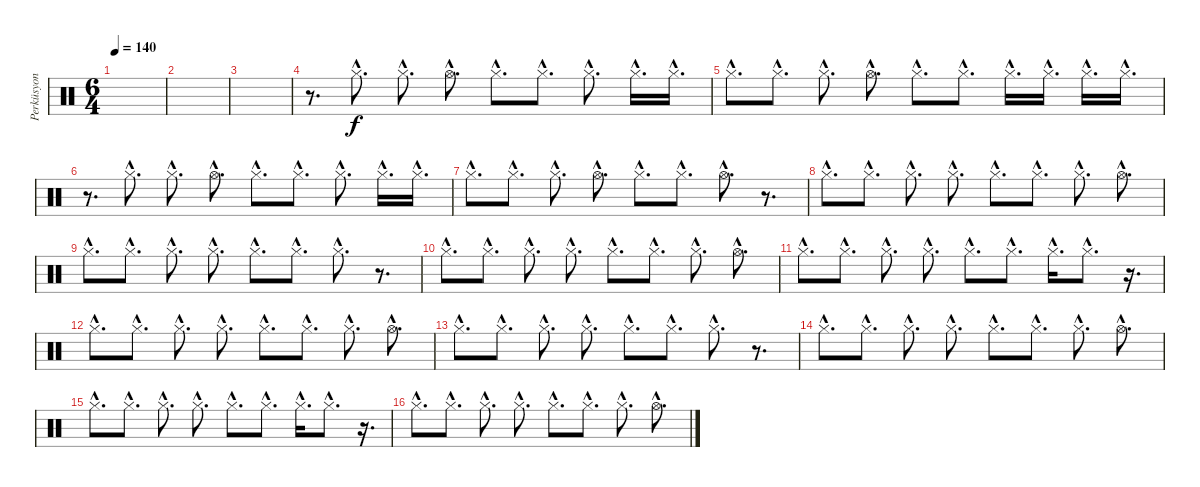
\track ("Perküsyon" "Perküsyon") {instrument percussion}
\staff {score}
\articulation defaults
\ts (6 4)
\tempo 140
\clef neutral
\ks c
|
|
|
r.8{d} "Hi-Hat (closed)"{hac}.8{d dy f} "Hi-Hat (closed)"{hac}.8{d} "Hi-Hat (open)"{hac}.8{d} "Hi-Hat (closed)"{hac}.8{d} "Hi-Hat (closed)"{hac}.8{d} "Hi-Hat (closed)"{hac}.8{d} "Hi-Hat (closed)"{hac}.16{d} "Hi-Hat (closed)"{hac}.16{d} |
"Hi-Hat (closed)"{hac}.8{d} "Hi-Hat (closed)"{hac}.8{d} "Hi-Hat (closed)"{hac}.8{d} "Hi-Hat (open)"{hac}.8{d} "Hi-Hat (closed)"{hac}.8{d} "Hi-Hat (closed)"{hac}.8{d} "Hi-Hat (closed)"{hac}.16{d} "Hi-Hat (closed)"{hac}.16{d} "Hi-Hat (closed)"{hac}.16{d} "Hi-Hat (closed)"{hac}.16{d} |
r.8{d} "Hi-Hat (closed)"{hac}.8{d} "Hi-Hat (closed)"{hac}.8{d} "Hi-Hat (open)"{hac}.8{d} "Hi-Hat (closed)"{hac}.8{d} "Hi-Hat (closed)"{hac}.8{d} "Hi-Hat (closed)"{hac}.8{d} "Hi-Hat (closed)"{hac}.16{d} "Hi-Hat (closed)"{hac}.16{d} |
"Hi-Hat (closed)"{hac}.8{d} "Hi-Hat (closed)"{hac}.8{d} "Hi-Hat (closed)"{hac}.8{d} "Hi-Hat (open)"{hac}.8{d} "Hi-Hat (closed)"{hac}.8{d} "Hi-Hat (closed)"{hac}.8{d} "Hi-Hat (open)"{hac}.8{d} r.8{d} |
"Hi-Hat (closed)"{hac}.8{d} "Hi-Hat (closed)"{hac}.8{d} "Hi-Hat (closed)"{hac}.8{d} "Hi-Hat (closed)"{hac}.8{d} "Hi-Hat (closed)"{hac}.8{d} "Hi-Hat (closed)"{hac}.8{d} "Hi-Hat (closed)"{hac}.8{d} "Hi-Hat (open)"{hac}.8{d} |
"Hi-Hat (closed)"{hac}.8{d} "Hi-Hat (closed)"{hac}.8{d} "Hi-Hat (closed)"{hac}.8{d} "Hi-Hat (closed)"{hac}.8{d} "Hi-Hat (closed)"{hac}.8{d} "Hi-Hat (closed)"{hac}.8{d} "Hi-Hat (closed)"{hac}.8{d} r.8{d} |
"Hi-Hat (closed)"{hac}.8{d} "Hi-Hat (closed)"{hac}.8{d} "Hi-Hat (closed)"{hac}.8{d} "Hi-Hat (closed)"{hac}.8{d} "Hi-Hat (closed)"{hac}.8{d} "Hi-Hat (closed)"{hac}.8{d} "Hi-Hat (closed)"{hac}.8{d} "Hi-Hat (open)"{hac}.8{d} |
"Hi-Hat (closed)"{hac}.8{d} "Hi-Hat (closed)"{hac}.8{d} "Hi-Hat (closed)"{hac}.8{d} "Hi-Hat (closed)"{hac}.8{d} "Hi-Hat (closed)"{hac}.8{d} "Hi-Hat (closed)"{hac}.8{d} "Hi-Hat (closed)"{hac}.16{d} "Hi-Hat (closed)"{hac}.8{d} r.16{d} |
"Hi-Hat (closed)"{hac}.8{d} "Hi-Hat (closed)"{hac}.8{d} "Hi-Hat (closed)"{hac}.8{d} "Hi-Hat (closed)"{hac}.8{d} "Hi-Hat (closed)"{hac}.8{d} "Hi-Hat (closed)"{hac}.8{d} "Hi-Hat (closed)"{hac}.8{d} "Hi-Hat (open)"{hac}.8{d} |
"Hi-Hat (closed)"{hac}.8{d} "Hi-Hat (closed)"{hac}.8{d} "Hi-Hat (closed)"{hac}.8{d} "Hi-Hat (closed)"{hac}.8{d} "Hi-Hat (closed)"{hac}.8{d} "Hi-Hat (closed)"{hac}.8{d} "Hi-Hat (closed)"{hac}.8{d} r.8{d} |
"Hi-Hat (closed)"{hac}.8{d} "Hi-Hat (closed)"{hac}.8{d} "Hi-Hat (closed)"{hac}.8{d} "Hi-Hat (closed)"{hac}.8{d} "Hi-Hat (closed)"{hac}.8{d} "Hi-Hat (closed)"{hac}.8{d} "Hi-Hat (closed)"{hac}.8{d} "Hi-Hat (open)"{hac}.8{d} |
"Hi-Hat (closed)"{hac}.8{d} "Hi-Hat (closed)"{hac}.8{d} "Hi-Hat (closed)"{hac}.8{d} "Hi-Hat (closed)"{hac}.8{d} "Hi-Hat (closed)"{hac}.8{d} "Hi-Hat (closed)"{hac}.8{d} "Hi-Hat (closed)"{hac}.16{d} "Hi-Hat (closed)"{hac}.8{d} r.16{d} |
"Hi-Hat (closed)"{hac}.8{d} "Hi-Hat (closed)"{hac}.8{d} "Hi-Hat (closed)"{hac}.8{d} "Hi-Hat (closed)"{hac}.8{d} "Hi-Hat (closed)"{hac}.8{d} "Hi-Hat (closed)"{hac}.8{d} "Hi-Hat (closed)"{hac}.8{d} "Hi-Hat (open)"{hac}.8{d}
